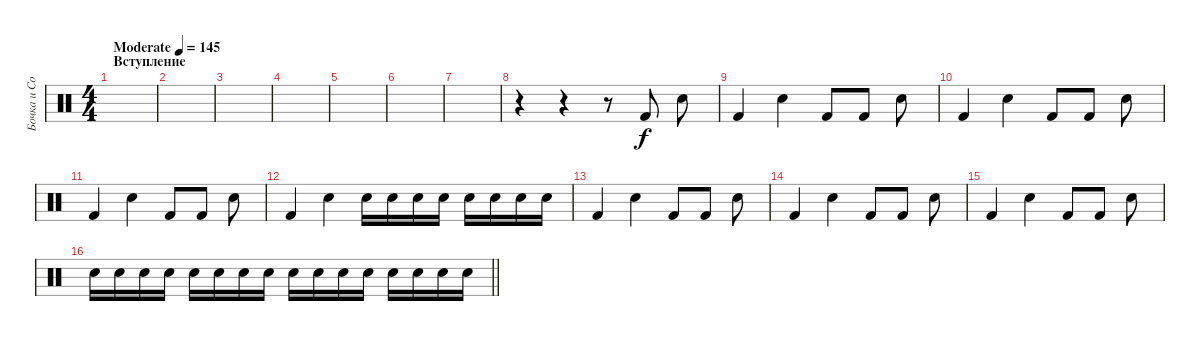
\track ("Бочка и Сольник" "Бочка и Со") {instrument percussion}
\staff {score}
\articulation defaults
\ts (4 4)
\section ("" "Вступление")
\tempo (145 "Moderate")
\clef neutral
\ks c
|
|
|
|
|
|
|
r.4 r.4 r.8 "Kick (hit) 2".8 "Snare (hit) 2".8 |
"Kick (hit) 2".4 "Snare (hit) 2".4 "Kick (hit) 2".8 "Kick (hit) 2".8 "Snare (hit) 2".8 |
"Kick (hit) 2".4 "Snare (hit) 2".4 "Kick (hit) 2".8 "Kick (hit) 2".8 "Snare (hit) 2".8 |
"Kick (hit) 2".4 "Snare (hit) 2".4 "Kick (hit) 2".8 "Kick (hit) 2".8 "Snare (hit) 2".8 |
"Kick (hit) 2".4 "Snare (hit) 2".4 "Snare (hit) 2".16 "Snare (hit) 2".16 "Snare (hit) 2".16 "Snare (hit) 2".16 "Snare (hit) 2".16 "Snare (hit) 2".16 "Snare (hit) 2".16 "Snare (hit) 2".16 |
"Kick (hit) 2".4 "Snare (hit) 2".4 "Kick (hit) 2".8 "Kick (hit) 2".8 "Snare (hit) 2".8 |
"Kick (hit) 2".4 "Snare (hit) 2".4 "Kick (hit) 2".8 "Kick (hit) 2".8 "Snare (hit) 2".8 |
"Kick (hit) 2".4 "Snare (hit) 2".4 "Kick (hit) 2".8 "Kick (hit) 2".8 "Snare (hit) 2".8 |
\barLineRight lightlight "Snare (hit) 2".16 "Snare (hit) 2".16 "Snare (hit) 2".16 "Snare (hit) 2".16 "Snare (hit) 2".16 "Snare (hit) 2".16 "Snare (hit) 2".16 "Snare (hit) 2".16 "Snare (hit) 2".16 "Snare (hit) 2".16 "Snare (hit) 2".16 "Snare (hit) 2".16 "Snare (hit) 2".16 "Snare (hit) 2".16 "Snare (hit) 2".16 "Snare (hit) 2".16
